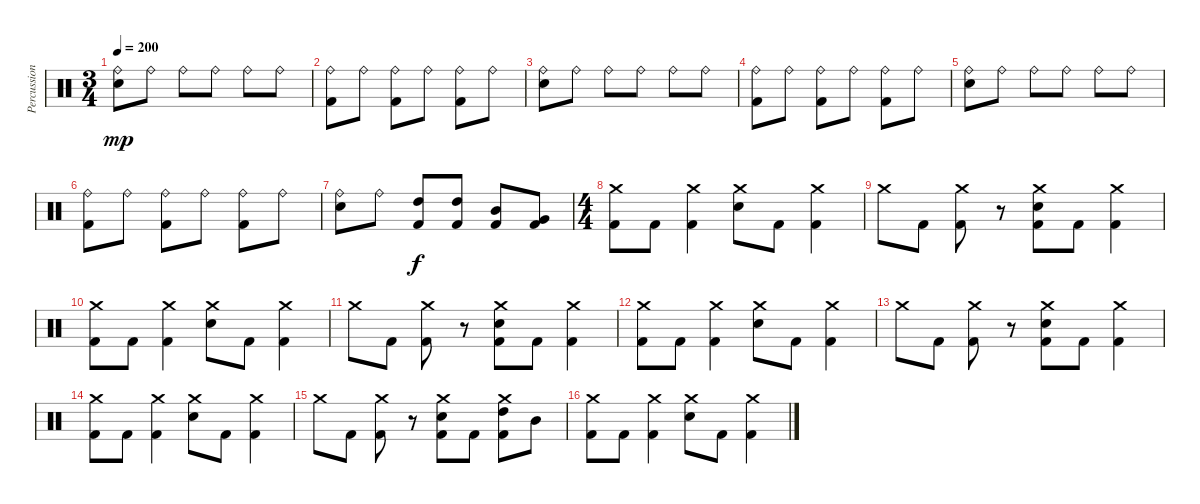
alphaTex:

\track ("Percussion" "Percussion") {instrument percussion}
\staff {score}
\articulation defaults
\ts (3 4)
\tempo 200
\clef neutral
\ks c
("Ride (bell)" "Electric Snare (hit)").8{dy mp} "Ride (bell)".8 "Ride (bell)".8 "Ride (bell)".8 "Ride (bell)".8 "Ride (bell)".8 |
("Ride (bell)" "Kick (hit) 2").8 "Ride (bell)".8 ("Ride (bell)" "Kick (hit) 2").8 "Ride (bell)".8 ("Ride (bell)" "Kick (hit) 2").8 "Ride (bell)".8 |
("Ride (bell)" "Electric Snare (hit)").8 "Ride (bell)".8 "Ride (bell)".8 "Ride (bell)".8 "Ride (bell)".8 "Ride (bell)".8 |
("Ride (bell)" "Kick (hit) 2").8 "Ride (bell)".8 ("Ride (bell)" "Kick (hit) 2").8 "Ride (bell)".8 ("Ride (bell)" "Kick (hit) 2").8 "Ride (bell)".8 |
("Ride (bell)" "Electric Snare (hit)").8 "Ride (bell)".8 "Ride (bell)".8 "Ride (bell)".8 "Ride (bell)".8 "Ride (bell)".8 |
("Ride (bell)" "Kick (hit) 2").8 "Ride (bell)".8 ("Ride (bell)" "Kick (hit) 2").8 "Ride (bell)".8 ("Ride (bell)" "Kick (hit) 2").8 "Ride (bell)".8 |
("Ride (bell)" "Electric Snare (hit)").8 "Ride (bell)".8 ("High Tom (hit)" "Kick (hit) 2").8{dy f} ("High Tom (hit)" "Kick (hit) 2").8 ("Mid Tom (hit)" "Kick (hit) 2").8 ("Very Low Tom (hit)" "Kick (hit) 2").8 |
\ts (4 4)
("Crash medium (hit)" "Kick (hit) 2").8 "Kick (hit) 2".8 ("Crash medium (hit)" "Kick (hit) 2").4 ("Crash medium (hit)" "Electric Snare (hit)").8 "Kick (hit) 2".8 ("Crash medium (hit)" "Kick (hit) 2").4 |
"Crash medium (hit)".8 "Kick (hit) 2".8 ("Crash medium (hit)" "Kick (hit) 2").8 r.8 ("Crash medium (hit)" "Electric Snare (hit)" "Kick (hit) 2").8 "Kick (hit) 2".8 ("Crash medium (hit)" "Kick (hit) 2").4 |
("Crash medium (hit)" "Kick (hit) 2").8 "Kick (hit) 2".8 ("Crash medium (hit)" "Kick (hit) 2").4 ("Crash medium (hit)" "Electric Snare (hit)").8 "Kick (hit) 2".8 ("Crash medium (hit)" "Kick (hit) 2").4 |
"Crash medium (hit)".8 "Kick (hit) 2".8 ("Crash medium (hit)" "Kick (hit) 2").8 r.8 ("Crash medium (hit)" "Electric Snare (hit)" "Kick (hit) 2").8 "Kick (hit) 2".8 ("Crash medium (hit)" "Kick (hit) 2").4 |
("Crash medium (hit)" "Kick (hit) 2").8 "Kick (hit) 2".8 ("Crash medium (hit)" "Kick (hit) 2").4 ("Crash medium (hit)" "Electric Snare (hit)").8 "Kick (hit) 2".8 ("Crash medium (hit)" "Kick (hit) 2").4 |
"Crash medium (hit)".8 "Kick (hit) 2".8 ("Crash medium (hit)" "Kick (hit) 2").8 r.8 ("Crash medium (hit)" "Electric Snare (hit)" "Kick (hit) 2").8 "Kick (hit) 2".8 ("Crash medium (hit)" "Kick (hit) 2").4 |
("Crash medium (hit)" "Kick (hit) 2").8 "Kick (hit) 2".8 ("Crash medium (hit)" "Kick (hit) 2").4 ("Crash medium (hit)" "Electric Snare (hit)").8 "Kick (hit) 2".8 ("Crash medium (hit)" "Kick (hit) 2").4 |
"Crash medium (hit)".8 "Kick (hit) 2".8 ("Crash medium (hit)" "Kick (hit) 2").8 r.8 ("Crash medium (hit)" "Electric Snare (hit)" "Kick (hit) 2").8 "Kick (hit) 2".8 ("Crash medium (hit)" "High Tom (hit)" "Kick (hit) 2").8 "Mid Tom (hit)".8 |
("Crash medium (hit)" "Kick (hit) 2").8 "Kick (hit) 2".8 ("Crash medium (hit)" "Kick (hit) 2").4 ("Crash medium (hit)" "Electric Snare (hit)").8 "Kick (hit) 2".8 ("Crash medium (hit)" "Kick (hit) 2").4
